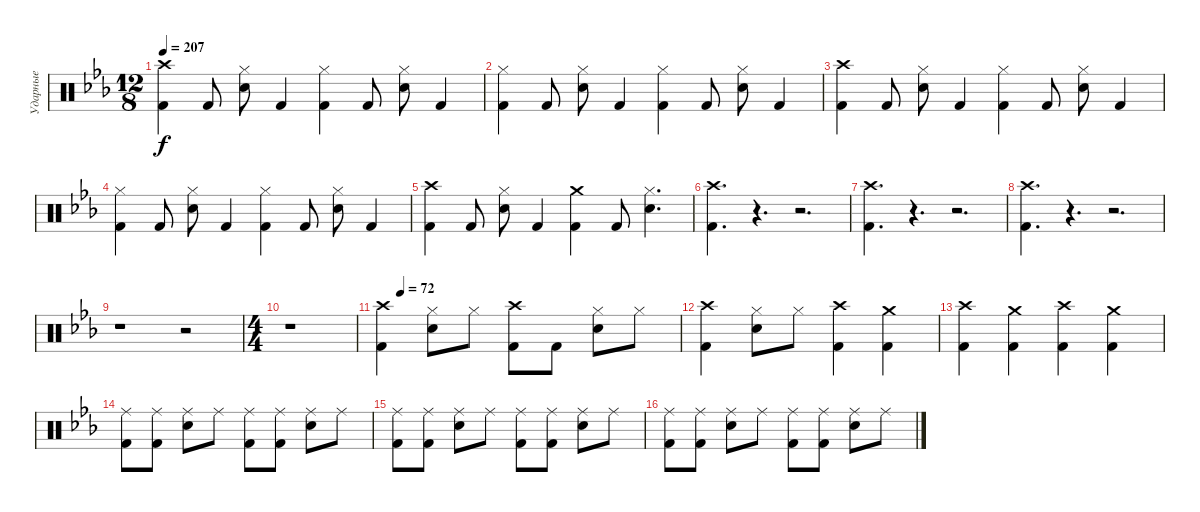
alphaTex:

\track ("Ударные" "Ударные") {instrument percussion}
\staff {score}
\articulation defaults
\ts (12 8)
\tempo 207
\clef neutral
\ks eb
("Crash high (hit)" "Kick (hit) 2").4{dy f} "Kick (hit) 2".8 ("Hi-Hat (closed)" "Snare (hit) 2").8 "Kick (hit) 2".4 ("Hi-Hat (closed)" "Kick (hit) 2").4 "Kick (hit) 2".8 ("Hi-Hat (closed)" "Snare (hit) 2").8 "Kick (hit) 2".4 |
("Hi-Hat (closed)" "Kick (hit) 2").4 "Kick (hit) 2".8 ("Hi-Hat (closed)" "Snare (hit) 2").8 "Kick (hit) 2".4 ("Hi-Hat (closed)" "Kick (hit) 2").4 "Kick (hit) 2".8 ("Hi-Hat (closed)" "Snare (hit) 2").8 "Kick (hit) 2".4 |
("Crash high (hit)" "Kick (hit) 2").4 "Kick (hit) 2".8 ("Hi-Hat (closed)" "Snare (hit) 2").8 "Kick (hit) 2".4 ("Hi-Hat (closed)" "Kick (hit) 2").4 "Kick (hit) 2".8 ("Hi-Hat (closed)" "Snare (hit) 2").8 "Kick (hit) 2".4 |
("Hi-Hat (closed)" "Kick (hit) 2").4 "Kick (hit) 2".8 ("Hi-Hat (closed)" "Snare (hit) 2").8 "Kick (hit) 2".4 ("Hi-Hat (closed)" "Kick (hit) 2").4 "Kick (hit) 2".8 ("Hi-Hat (closed)" "Snare (hit) 2").8 "Kick (hit) 2".4 |
("Crash high (hit)" "Kick (hit) 2").4 "Kick (hit) 2".8 ("Hi-Hat (closed)" "Snare (hit) 2").8 "Kick (hit) 2".4 ("Crash medium (hit)" "Kick (hit) 2").4 "Kick (hit) 2".8 ("Hi-Hat (closed)" "Snare (hit) 2").4{d} |
("Crash high (hit)" "Kick (hit) 2").4{d} r.4{d} r.2{d} |
("Crash high (hit)" "Kick (hit) 2").4{d} r.4{d} r.2{d} |
("Crash high (hit)" "Kick (hit) 2").4{d} r.4{d} r.2{d} |
r.1 r.2 |
\ts (4 4)
r.1 |
\tempo (72 0.0625)
("Crash high (hit)" "Kick (hit) 2").4 ("Hi-Hat (closed)" "Snare (hit) 2").8 "Hi-Hat (closed)".8 ("Crash high (hit)" "Kick (hit) 2").8 "Kick (hit) 2".8 ("Hi-Hat (closed)" "Snare (hit) 2").8 "Hi-Hat (closed)".8 |
("Crash high (hit)" "Kick (hit) 2").4 ("Hi-Hat (closed)" "Snare (hit) 2").8 "Hi-Hat (closed)".8 ("Crash high (hit)" "Kick (hit) 2").4 ("Crash medium (hit)" "Kick (hit) 2").4 |
("Crash high (hit)" "Kick (hit) 2").4 ("Crash medium (hit)" "Kick (hit) 2").4 ("Crash high (hit)" "Kick (hit) 2").4 ("Crash medium (hit)" "Kick (hit) 2").4 |
("Ride (middle)" "Kick (hit) 2").8 ("Ride (middle)" "Kick (hit) 2").8 ("Ride (middle)" "Snare (hit) 2").8 "Ride (middle)".8 ("Ride (middle)" "Kick (hit) 2").8 ("Ride (middle)" "Kick (hit) 2").8 ("Ride (middle)" "Snare (hit) 2").8 "Ride (middle)".8 |
("Ride (middle)" "Kick (hit) 2").8 ("Ride (middle)" "Kick (hit) 2").8 ("Ride (middle)" "Snare (hit) 2").8 "Ride (middle)".8 ("Ride (middle)" "Kick (hit) 2").8 ("Ride (middle)" "Kick (hit) 2").8 ("Ride (middle)" "Snare (hit) 2").8 "Ride (middle)".8 |
("Ride (middle)" "Kick (hit) 2").8 ("Ride (middle)" "Kick (hit) 2").8 ("Ride (middle)" "Snare (hit) 2").8 "Ride (middle)".8 ("Ride (middle)" "Kick (hit) 2").8 ("Ride (middle)" "Kick (hit) 2").8 ("Ride (middle)" "Snare (hit) 2").8 "Ride (middle)".8
